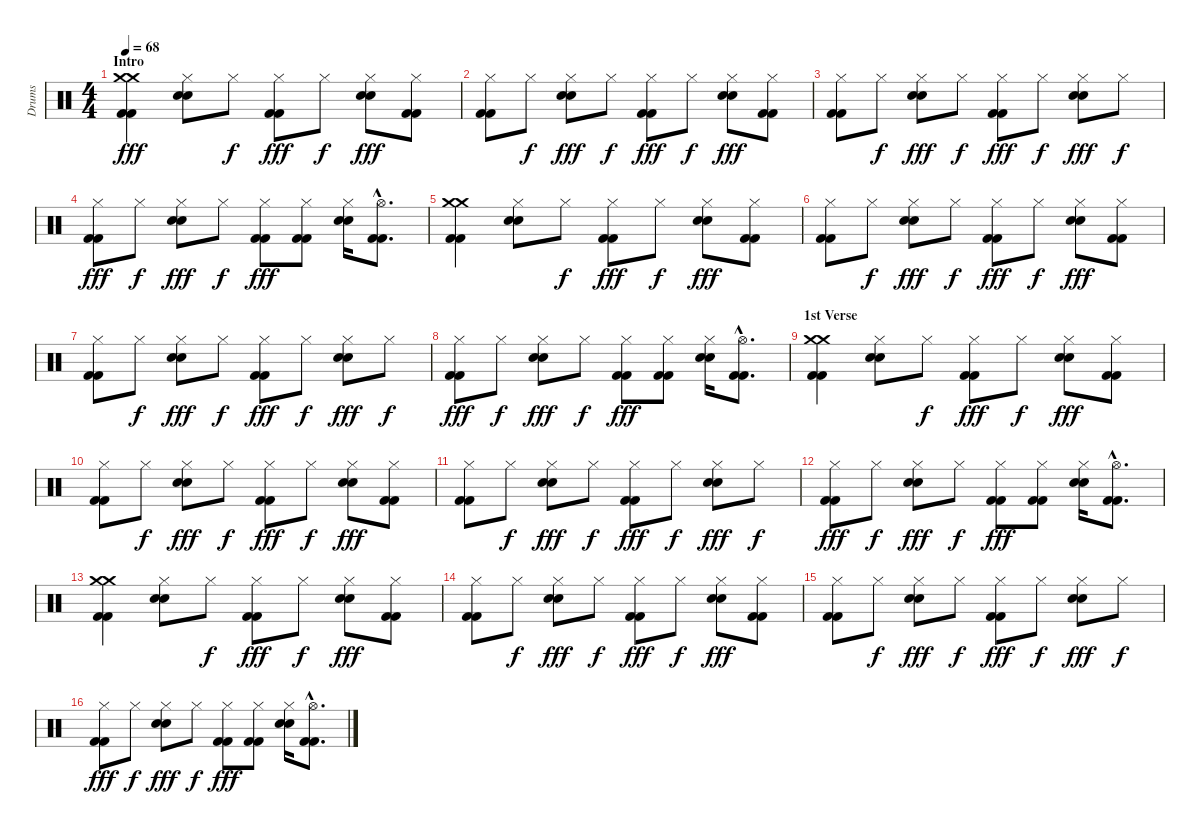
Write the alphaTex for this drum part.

\track ("Drums" "Drums") {instrument percussion}
\staff {score}
\articulation defaults
\ts (4 4)
\section ("" "Intro")
\tempo 68
\clef neutral
\ks c
("Crash medium (hit)" "Crash medium (hit)" "Kick (hit) 2" "Kick (hit) 2").4{dy fff} ("Hi-Hat (closed)" "Electric Snare (hit)" "Electric Snare (hit)").8 "Hi-Hat (closed)".8{dy f} ("Hi-Hat (closed)" "Kick (hit) 2" "Kick (hit) 2").8{dy fff} "Hi-Hat (closed)".8{dy f} ("Hi-Hat (closed)" "Electric Snare (hit)" "Electric Snare (hit)").8{dy fff} ("Hi-Hat (closed)" "Kick (hit) 2" "Kick (hit) 2").8 |
("Hi-Hat (closed)" "Kick (hit) 2" "Kick (hit) 2").8 "Hi-Hat (closed)".8{dy f} ("Hi-Hat (closed)" "Electric Snare (hit)" "Electric Snare (hit)").8{dy fff} "Hi-Hat (closed)".8{dy f} ("Hi-Hat (closed)" "Kick (hit) 2" "Kick (hit) 2").8{dy fff} "Hi-Hat (closed)".8{dy f} ("Hi-Hat (closed)" "Electric Snare (hit)" "Electric Snare (hit)").8{dy fff} ("Hi-Hat (closed)" "Kick (hit) 2" "Kick (hit) 2").8 |
("Hi-Hat (closed)" "Kick (hit) 2" "Kick (hit) 2").8 "Hi-Hat (closed)".8{dy f} ("Hi-Hat (closed)" "Electric Snare (hit)" "Electric Snare (hit)").8{dy fff} "Hi-Hat (closed)".8{dy f} ("Hi-Hat (closed)" "Kick (hit) 2" "Kick (hit) 2").8{dy fff} "Hi-Hat (closed)".8{dy f} ("Hi-Hat (closed)" "Electric Snare (hit)" "Electric Snare (hit)").8{dy fff} "Hi-Hat (closed)".8{dy f} |
("Hi-Hat (closed)" "Kick (hit) 2" "Kick (hit) 2").8{dy fff} "Hi-Hat (closed)".8{dy f} ("Hi-Hat (closed)" "Electric Snare (hit)" "Electric Snare (hit)").8{dy fff} "Hi-Hat (closed)".8{dy f} ("Hi-Hat (closed)" "Kick (hit) 2" "Kick (hit) 2").8{dy fff} ("Hi-Hat (closed)" "Kick (hit) 2" "Kick (hit) 2").8 ("Hi-Hat (closed)" "Electric Snare (hit)" "Electric Snare (hit)").16 ("Hi-Hat (open)"{hac} "Kick (hit) 2"{hac} "Kick (hit) 2"{hac}).8{d} |
("Crash medium (hit)" "Crash medium (hit)" "Kick (hit) 2" "Kick (hit) 2").4 ("Hi-Hat (closed)" "Electric Snare (hit)" "Electric Snare (hit)").8 "Hi-Hat (closed)".8{dy f} ("Hi-Hat (closed)" "Kick (hit) 2" "Kick (hit) 2").8{dy fff} "Hi-Hat (closed)".8{dy f} ("Hi-Hat (closed)" "Electric Snare (hit)" "Electric Snare (hit)").8{dy fff} ("Hi-Hat (closed)" "Kick (hit) 2" "Kick (hit) 2").8 |
("Hi-Hat (closed)" "Kick (hit) 2" "Kick (hit) 2").8 "Hi-Hat (closed)".8{dy f} ("Hi-Hat (closed)" "Electric Snare (hit)" "Electric Snare (hit)").8{dy fff} "Hi-Hat (closed)".8{dy f} ("Hi-Hat (closed)" "Kick (hit) 2" "Kick (hit) 2").8{dy fff} "Hi-Hat (closed)".8{dy f} ("Hi-Hat (closed)" "Electric Snare (hit)" "Electric Snare (hit)").8{dy fff} ("Hi-Hat (closed)" "Kick (hit) 2" "Kick (hit) 2").8 |
("Hi-Hat (closed)" "Kick (hit) 2" "Kick (hit) 2").8 "Hi-Hat (closed)".8{dy f} ("Hi-Hat (closed)" "Electric Snare (hit)" "Electric Snare (hit)").8{dy fff} "Hi-Hat (closed)".8{dy f} ("Hi-Hat (closed)" "Kick (hit) 2" "Kick (hit) 2").8{dy fff} "Hi-Hat (closed)".8{dy f} ("Hi-Hat (closed)" "Electric Snare (hit)" "Electric Snare (hit)").8{dy fff} "Hi-Hat (closed)".8{dy f} |
("Hi-Hat (closed)" "Kick (hit) 2" "Kick (hit) 2").8{dy fff} "Hi-Hat (closed)".8{dy f} ("Hi-Hat (closed)" "Electric Snare (hit)" "Electric Snare (hit)").8{dy fff} "Hi-Hat (closed)".8{dy f} ("Hi-Hat (closed)" "Kick (hit) 2" "Kick (hit) 2").8{dy fff} ("Hi-Hat (closed)" "Kick (hit) 2" "Kick (hit) 2").8 ("Hi-Hat (closed)" "Electric Snare (hit)" "Electric Snare (hit)").16 ("Hi-Hat (open)"{hac} "Kick (hit) 2"{hac} "Kick (hit) 2"{hac}).8{d} |
\section ("" "1st Verse")
("Crash medium (hit)" "Crash medium (hit)" "Kick (hit) 2" "Kick (hit) 2").4 ("Hi-Hat (closed)" "Electric Snare (hit)" "Electric Snare (hit)").8 "Hi-Hat (closed)".8{dy f} ("Hi-Hat (closed)" "Kick (hit) 2" "Kick (hit) 2").8{dy fff} "Hi-Hat (closed)".8{dy f} ("Hi-Hat (closed)" "Electric Snare (hit)" "Electric Snare (hit)").8{dy fff} ("Hi-Hat (closed)" "Kick (hit) 2" "Kick (hit) 2").8 |
("Hi-Hat (closed)" "Kick (hit) 2" "Kick (hit) 2").8 "Hi-Hat (closed)".8{dy f} ("Hi-Hat (closed)" "Electric Snare (hit)" "Electric Snare (hit)").8{dy fff} "Hi-Hat (closed)".8{dy f} ("Hi-Hat (closed)" "Kick (hit) 2" "Kick (hit) 2").8{dy fff} "Hi-Hat (closed)".8{dy f} ("Hi-Hat (closed)" "Electric Snare (hit)" "Electric Snare (hit)").8{dy fff} ("Hi-Hat (closed)" "Kick (hit) 2" "Kick (hit) 2").8 |
("Hi-Hat (closed)" "Kick (hit) 2" "Kick (hit) 2").8 "Hi-Hat (closed)".8{dy f} ("Hi-Hat (closed)" "Electric Snare (hit)" "Electric Snare (hit)").8{dy fff} "Hi-Hat (closed)".8{dy f} ("Hi-Hat (closed)" "Kick (hit) 2" "Kick (hit) 2").8{dy fff} "Hi-Hat (closed)".8{dy f} ("Hi-Hat (closed)" "Electric Snare (hit)" "Electric Snare (hit)").8{dy fff} "Hi-Hat (closed)".8{dy f} |
("Hi-Hat (closed)" "Kick (hit) 2" "Kick (hit) 2").8{dy fff} "Hi-Hat (closed)".8{dy f} ("Hi-Hat (closed)" "Electric Snare (hit)" "Electric Snare (hit)").8{dy fff} "Hi-Hat (closed)".8{dy f} ("Hi-Hat (closed)" "Kick (hit) 2" "Kick (hit) 2").8{dy fff} ("Hi-Hat (closed)" "Kick (hit) 2" "Kick (hit) 2").8 ("Hi-Hat (closed)" "Electric Snare (hit)" "Electric Snare (hit)").16 ("Hi-Hat (open)"{hac} "Kick (hit) 2"{hac} "Kick (hit) 2"{hac}).8{d} |
("Crash medium (hit)" "Crash medium (hit)" "Kick (hit) 2" "Kick (hit) 2").4 ("Hi-Hat (closed)" "Electric Snare (hit)" "Electric Snare (hit)").8 "Hi-Hat (closed)".8{dy f} ("Hi-Hat (closed)" "Kick (hit) 2" "Kick (hit) 2").8{dy fff} "Hi-Hat (closed)".8{dy f} ("Hi-Hat (closed)" "Electric Snare (hit)" "Electric Snare (hit)").8{dy fff} ("Hi-Hat (closed)" "Kick (hit) 2" "Kick (hit) 2").8 |
("Hi-Hat (closed)" "Kick (hit) 2" "Kick (hit) 2").8 "Hi-Hat (closed)".8{dy f} ("Hi-Hat (closed)" "Electric Snare (hit)" "Electric Snare (hit)").8{dy fff} "Hi-Hat (closed)".8{dy f} ("Hi-Hat (closed)" "Kick (hit) 2" "Kick (hit) 2").8{dy fff} "Hi-Hat (closed)".8{dy f} ("Hi-Hat (closed)" "Electric Snare (hit)" "Electric Snare (hit)").8{dy fff} ("Hi-Hat (closed)" "Kick (hit) 2" "Kick (hit) 2").8 |
("Hi-Hat (closed)" "Kick (hit) 2" "Kick (hit) 2").8 "Hi-Hat (closed)".8{dy f} ("Hi-Hat (closed)" "Electric Snare (hit)" "Electric Snare (hit)").8{dy fff} "Hi-Hat (closed)".8{dy f} ("Hi-Hat (closed)" "Kick (hit) 2" "Kick (hit) 2").8{dy fff} "Hi-Hat (closed)".8{dy f} ("Hi-Hat (closed)" "Electric Snare (hit)" "Electric Snare (hit)").8{dy fff} "Hi-Hat (closed)".8{dy f} |
("Hi-Hat (closed)" "Kick (hit) 2" "Kick (hit) 2").8{dy fff} "Hi-Hat (closed)".8{dy f} ("Hi-Hat (closed)" "Electric Snare (hit)" "Electric Snare (hit)").8{dy fff} "Hi-Hat (closed)".8{dy f} ("Hi-Hat (closed)" "Kick (hit) 2" "Kick (hit) 2").8{dy fff} ("Hi-Hat (closed)" "Kick (hit) 2" "Kick (hit) 2").8 ("Hi-Hat (closed)" "Electric Snare (hit)" "Electric Snare (hit)").16 ("Hi-Hat (open)"{hac} "Kick (hit) 2"{hac} "Kick (hit) 2"{hac}).8{d}
